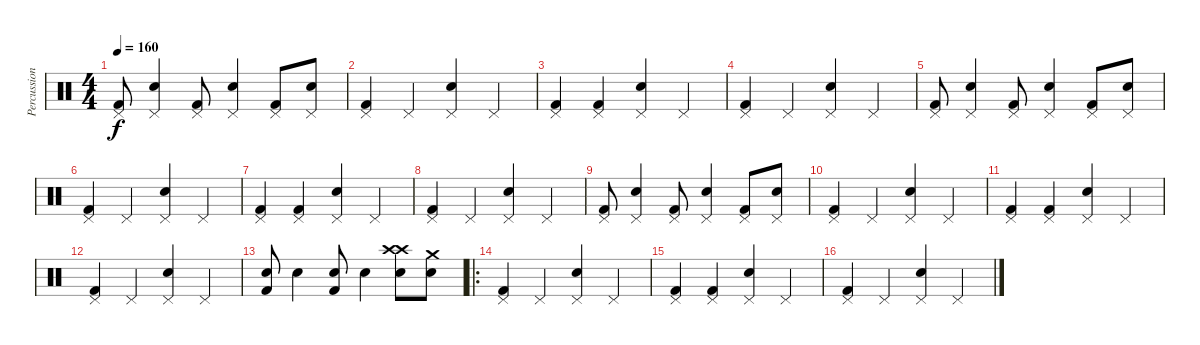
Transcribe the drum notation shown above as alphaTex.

\track ("Percussion" "Percussion") {instrument percussion}
\staff {score}
\articulation defaults
\ts (4 4)
\tempo 160
\clef neutral
\ks c
("Kick (hit) 2" "Pedal Hi-Hat (hit)").8{dy f} ("Snare (hit) 2" "Pedal Hi-Hat (hit)").4 ("Kick (hit) 2" "Pedal Hi-Hat (hit)").8 ("Snare (hit) 2" "Pedal Hi-Hat (hit)").4 ("Kick (hit) 2" "Pedal Hi-Hat (hit)").8 ("Snare (hit) 2" "Pedal Hi-Hat (hit)").8 |
("Kick (hit) 2" "Pedal Hi-Hat (hit)").4 "Pedal Hi-Hat (hit)".4 ("Snare (hit) 2" "Pedal Hi-Hat (hit)").4 "Pedal Hi-Hat (hit)".4 |
("Kick (hit) 2" "Pedal Hi-Hat (hit)").4 ("Kick (hit) 2" "Pedal Hi-Hat (hit)").4 ("Snare (hit) 2" "Pedal Hi-Hat (hit)").4 "Pedal Hi-Hat (hit)".4 |
("Kick (hit) 2" "Pedal Hi-Hat (hit)").4 "Pedal Hi-Hat (hit)".4 ("Snare (hit) 2" "Pedal Hi-Hat (hit)").4 "Pedal Hi-Hat (hit)".4 |
("Kick (hit) 2" "Pedal Hi-Hat (hit)").8 ("Snare (hit) 2" "Pedal Hi-Hat (hit)").4 ("Kick (hit) 2" "Pedal Hi-Hat (hit)").8 ("Snare (hit) 2" "Pedal Hi-Hat (hit)").4 ("Kick (hit) 2" "Pedal Hi-Hat (hit)").8 ("Snare (hit) 2" "Pedal Hi-Hat (hit)").8 |
("Kick (hit) 2" "Pedal Hi-Hat (hit)").4 "Pedal Hi-Hat (hit)".4 ("Snare (hit) 2" "Pedal Hi-Hat (hit)").4 "Pedal Hi-Hat (hit)".4 |
("Kick (hit) 2" "Pedal Hi-Hat (hit)").4 ("Kick (hit) 2" "Pedal Hi-Hat (hit)").4 ("Snare (hit) 2" "Pedal Hi-Hat (hit)").4 "Pedal Hi-Hat (hit)".4 |
("Kick (hit) 2" "Pedal Hi-Hat (hit)").4 "Pedal Hi-Hat (hit)".4 ("Snare (hit) 2" "Pedal Hi-Hat (hit)").4 "Pedal Hi-Hat (hit)".4 |
("Kick (hit) 2" "Pedal Hi-Hat (hit)").8 ("Snare (hit) 2" "Pedal Hi-Hat (hit)").4 ("Kick (hit) 2" "Pedal Hi-Hat (hit)").8 ("Snare (hit) 2" "Pedal Hi-Hat (hit)").4 ("Kick (hit) 2" "Pedal Hi-Hat (hit)").8 ("Snare (hit) 2" "Pedal Hi-Hat (hit)").8 |
("Kick (hit) 2" "Pedal Hi-Hat (hit)").4 "Pedal Hi-Hat (hit)".4 ("Snare (hit) 2" "Pedal Hi-Hat (hit)").4 "Pedal Hi-Hat (hit)".4 |
("Kick (hit) 2" "Pedal Hi-Hat (hit)").4 ("Kick (hit) 2" "Pedal Hi-Hat (hit)").4 ("Snare (hit) 2" "Pedal Hi-Hat (hit)").4 "Pedal Hi-Hat (hit)".4 |
("Kick (hit) 2" "Pedal Hi-Hat (hit)").4 "Pedal Hi-Hat (hit)".4 ("Snare (hit) 2" "Pedal Hi-Hat (hit)").4 "Pedal Hi-Hat (hit)".4 |
("Snare (hit) 2" "Kick (hit) 2").8 "Snare (hit) 2".4 ("Snare (hit) 2" "Kick (hit) 2").8 "Snare (hit) 2".4 ("Crash high (hit)" "Snare (hit) 2" "Crash high (hit)").8 ("Snare (hit) 2" "Crash medium (hit)").8 |
\ro
("Kick (hit) 2" "Pedal Hi-Hat (hit)").4 "Pedal Hi-Hat (hit)".4 ("Snare (hit) 2" "Pedal Hi-Hat (hit)").4 "Pedal Hi-Hat (hit)".4 |
("Kick (hit) 2" "Pedal Hi-Hat (hit)").4 ("Kick (hit) 2" "Pedal Hi-Hat (hit)").4 ("Snare (hit) 2" "Pedal Hi-Hat (hit)").4 "Pedal Hi-Hat (hit)".4 |
("Kick (hit) 2" "Pedal Hi-Hat (hit)").4 "Pedal Hi-Hat (hit)".4 ("Snare (hit) 2" "Pedal Hi-Hat (hit)").4 "Pedal Hi-Hat (hit)".4
